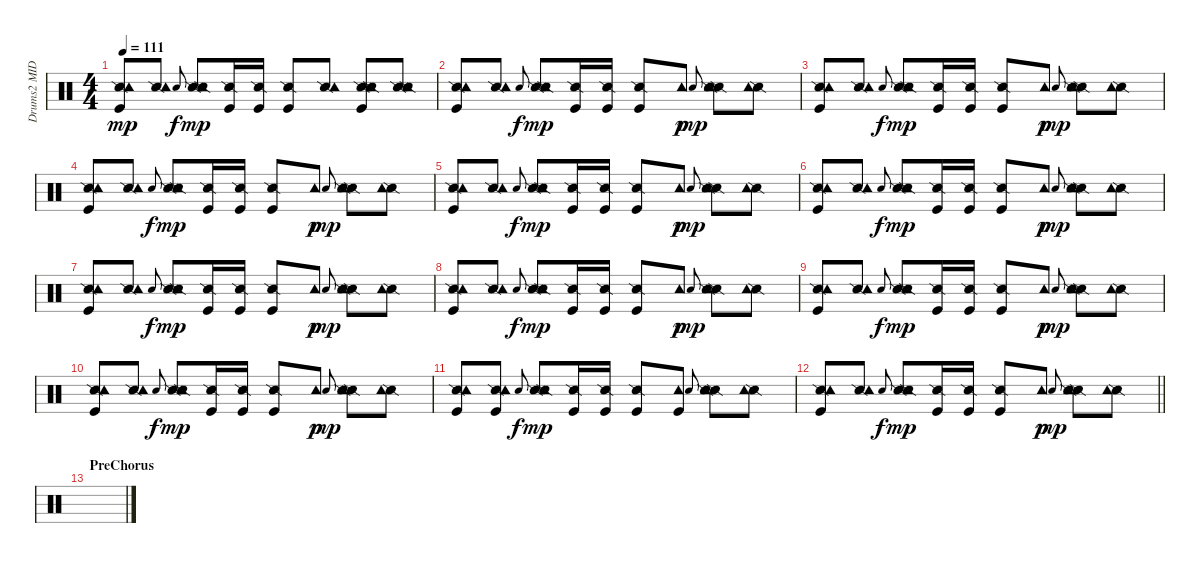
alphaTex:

\track ("Drums2 MIDI" "Drums2 MID") {instrument percussion}
\staff {score}
\articulation defaults
\ts (4 4)
\tempo 111
\clef neutral
\ks c
("Snare (side stick) 2" "Tambourine (hit)" "Kick (hit)").8{dy mp} ("Snare (side stick) 2" "Tambourine (hit)").8 "Snare (hit)".8{gr onbeat dy f} ("Snare (side stick) 2" "Tambourine (hit)" "Snare (side stick) 2").8{dy mp} ("Snare (side stick) 2" "Kick (hit)").16 ("Snare (side stick) 2" "Kick (hit)").16 ("Snare (side stick) 2" "Kick (hit)").8 ("Snare (side stick) 2" "Tambourine (hit)").8 ("Snare (side stick) 2" "Tambourine (hit)" "Kick (hit)" "Snare (side stick) 2").8 ("Snare (side stick) 2" "Tambourine (hit)" "Snare (side stick) 2").8 |
("Snare (side stick) 2" "Tambourine (hit)" "Kick (hit)").8 ("Snare (side stick) 2" "Tambourine (hit)").8 "Snare (hit)".8{gr onbeat dy f} ("Snare (side stick) 2" "Tambourine (hit)" "Snare (side stick) 2").8{dy mp} ("Snare (side stick) 2" "Kick (hit)").16 ("Snare (side stick) 2" "Kick (hit)").16 ("Snare (side stick) 2" "Kick (hit)").8 "Tambourine (hit)".8{dy p} "Snare (hit)".8{gr onbeat dy mp} ("Snare (side stick) 2" "Tambourine (hit)" "Snare (side stick) 2").8 ("Snare (side stick) 2" "Tambourine (hit)").8 |
("Snare (side stick) 2" "Tambourine (hit)" "Kick (hit)").8 ("Snare (side stick) 2" "Tambourine (hit)").8 "Snare (hit)".8{gr onbeat dy f} ("Snare (side stick) 2" "Tambourine (hit)" "Snare (side stick) 2").8{dy mp} ("Snare (side stick) 2" "Kick (hit)").16 ("Snare (side stick) 2" "Kick (hit)").16 ("Snare (side stick) 2" "Kick (hit)").8 "Tambourine (hit)".8{dy p} "Snare (hit)".8{gr onbeat dy mp} ("Snare (side stick) 2" "Tambourine (hit)" "Snare (side stick) 2").8 ("Snare (side stick) 2" "Tambourine (hit)").8 |
("Snare (side stick) 2" "Tambourine (hit)" "Kick (hit)").8 ("Snare (side stick) 2" "Tambourine (hit)").8 "Snare (hit)".8{gr onbeat dy f} ("Snare (side stick) 2" "Tambourine (hit)" "Snare (side stick) 2").8{dy mp} ("Snare (side stick) 2" "Kick (hit)").16 ("Snare (side stick) 2" "Kick (hit)").16 ("Snare (side stick) 2" "Kick (hit)").8 "Tambourine (hit)".8{dy p} "Snare (hit)".8{gr onbeat dy mp} ("Snare (side stick) 2" "Tambourine (hit)" "Snare (side stick) 2").8 ("Snare (side stick) 2" "Tambourine (hit)").8 |
("Snare (side stick) 2" "Tambourine (hit)" "Kick (hit)").8 ("Snare (side stick) 2" "Tambourine (hit)").8 "Snare (hit)".8{gr onbeat dy f} ("Snare (side stick) 2" "Tambourine (hit)" "Snare (side stick) 2").8{dy mp} ("Snare (side stick) 2" "Kick (hit)").16 ("Snare (side stick) 2" "Kick (hit)").16 ("Snare (side stick) 2" "Kick (hit)").8 "Tambourine (hit)".8{dy p} "Snare (hit)".8{gr onbeat dy mp} ("Snare (side stick) 2" "Tambourine (hit)" "Snare (side stick) 2").8 ("Snare (side stick) 2" "Tambourine (hit)").8 |
("Snare (side stick) 2" "Tambourine (hit)" "Kick (hit)").8 ("Snare (side stick) 2" "Tambourine (hit)").8 "Snare (hit)".8{gr onbeat dy f} ("Snare (side stick) 2" "Tambourine (hit)" "Snare (side stick) 2").8{dy mp} ("Snare (side stick) 2" "Kick (hit)").16 ("Snare (side stick) 2" "Kick (hit)").16 ("Snare (side stick) 2" "Kick (hit)").8 "Tambourine (hit)".8{dy p} "Snare (hit)".8{gr onbeat dy mp} ("Snare (side stick) 2" "Tambourine (hit)" "Snare (side stick) 2").8 ("Snare (side stick) 2" "Tambourine (hit)").8 |
("Snare (side stick) 2" "Tambourine (hit)" "Kick (hit)").8 ("Snare (side stick) 2" "Tambourine (hit)").8 "Snare (hit)".8{gr onbeat dy f} ("Snare (side stick) 2" "Tambourine (hit)" "Snare (side stick) 2").8{dy mp} ("Snare (side stick) 2" "Kick (hit)").16 ("Snare (side stick) 2" "Kick (hit)").16 ("Snare (side stick) 2" "Kick (hit)").8 "Tambourine (hit)".8{dy p} "Snare (hit)".8{gr onbeat dy mp} ("Snare (side stick) 2" "Tambourine (hit)" "Snare (side stick) 2").8 ("Snare (side stick) 2" "Tambourine (hit)").8 |
("Snare (side stick) 2" "Tambourine (hit)" "Kick (hit)").8 ("Snare (side stick) 2" "Tambourine (hit)").8 "Snare (hit)".8{gr onbeat dy f} ("Snare (side stick) 2" "Tambourine (hit)" "Snare (side stick) 2").8{dy mp} ("Snare (side stick) 2" "Kick (hit)").16 ("Snare (side stick) 2" "Kick (hit)").16 ("Snare (side stick) 2" "Kick (hit)").8 "Tambourine (hit)".8{dy p} "Snare (hit)".8{gr onbeat dy mp} ("Snare (side stick) 2" "Tambourine (hit)" "Snare (side stick) 2").8 ("Snare (side stick) 2" "Tambourine (hit)").8 |
("Snare (side stick) 2" "Tambourine (hit)" "Kick (hit)").8 ("Snare (side stick) 2" "Tambourine (hit)").8 "Snare (hit)".8{gr onbeat dy f} ("Snare (side stick) 2" "Tambourine (hit)" "Snare (side stick) 2").8{dy mp} ("Snare (side stick) 2" "Kick (hit)").16 ("Snare (side stick) 2" "Kick (hit)").16 ("Snare (side stick) 2" "Kick (hit)").8 "Tambourine (hit)".8{dy p} "Snare (hit)".8{gr onbeat dy mp} ("Snare (side stick) 2" "Tambourine (hit)" "Snare (side stick) 2").8 ("Snare (side stick) 2" "Tambourine (hit)").8 |
("Snare (side stick) 2" "Tambourine (hit)" "Kick (hit)").8 ("Snare (side stick) 2" "Tambourine (hit)").8 "Snare (hit)".8{gr onbeat dy f} ("Snare (side stick) 2" "Tambourine (hit)" "Snare (side stick) 2").8{dy mp} ("Snare (side stick) 2" "Kick (hit)").16 ("Snare (side stick) 2" "Kick (hit)").16 ("Snare (side stick) 2" "Kick (hit)").8 "Tambourine (hit)".8{dy p} "Snare (hit)".8{gr onbeat dy mp} ("Snare (side stick) 2" "Tambourine (hit)" "Snare (side stick) 2").8 ("Snare (side stick) 2" "Tambourine (hit)").8 |
("Snare (side stick) 2" "Tambourine (hit)" "Kick (hit)").8 ("Snare (side stick) 2" "Tambourine (hit)" "Kick (hit)").8 "Snare (hit)".8{gr onbeat dy f} ("Snare (side stick) 2" "Tambourine (hit)" "Snare (side stick) 2").8{dy mp} ("Snare (side stick) 2" "Kick (hit)").16 ("Snare (side stick) 2" "Kick (hit)").16 ("Snare (side stick) 2" "Kick (hit)").8 ("Tambourine (hit)" "Kick (hit)").8 "Snare (hit)".8{gr onbeat} ("Snare (side stick) 2" "Tambourine (hit)" "Snare (side stick) 2").8 ("Snare (side stick) 2" "Tambourine (hit)").8 |
\barLineRight lightlight
("Snare (side stick) 2" "Tambourine (hit)" "Kick (hit)").8 ("Snare (side stick) 2" "Tambourine (hit)").8 "Snare (hit)".8{gr onbeat dy f} ("Snare (side stick) 2" "Tambourine (hit)" "Snare (side stick) 2").8{dy mp} ("Snare (side stick) 2" "Kick (hit)").16 ("Snare (side stick) 2" "Kick (hit)").16 ("Snare (side stick) 2" "Kick (hit)").8 "Tambourine (hit)".8{dy p} "Snare (hit)".8{gr onbeat dy mp} ("Snare (side stick) 2" "Tambourine (hit)" "Snare (side stick) 2").8 ("Snare (side stick) 2" "Tambourine (hit)").8 |
\section ("" "PreChorus")
